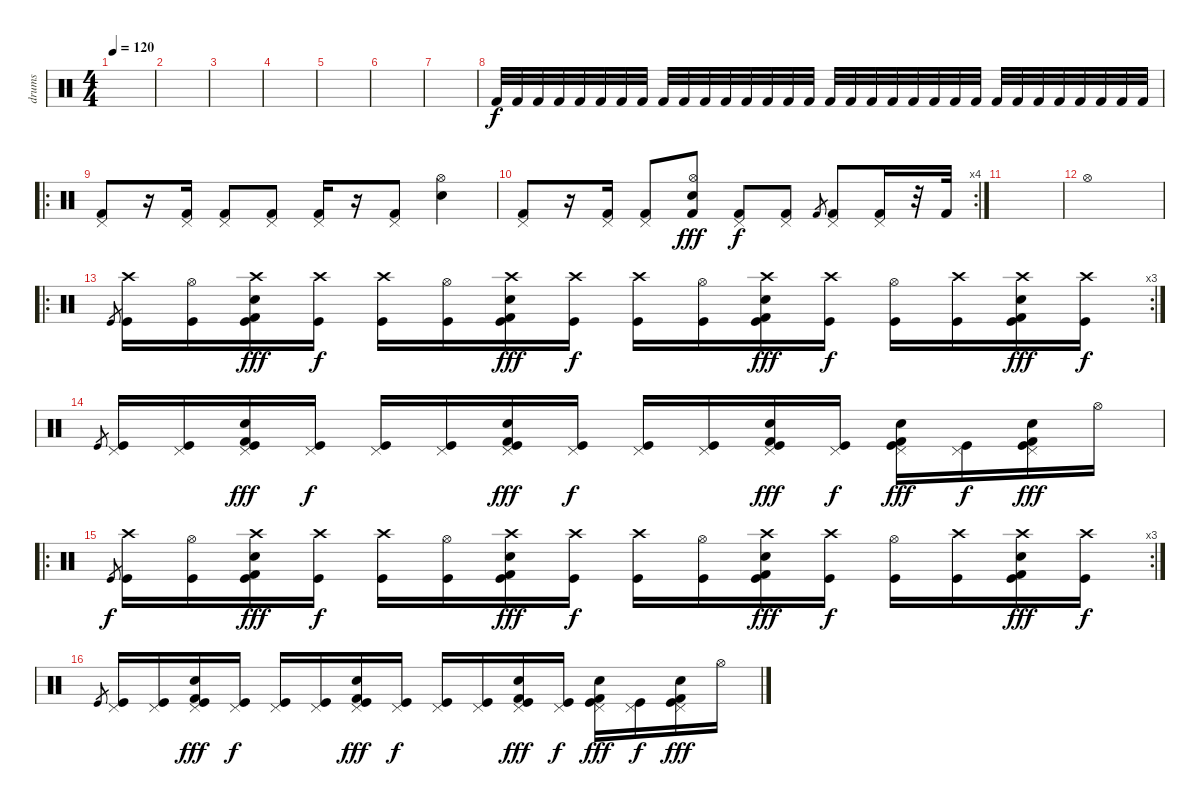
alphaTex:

\track ("drums" "drums") {instrument percussion}
\staff {score}
\articulation defaults
\ts (4 4)
\tempo 120
\clef neutral
\ks c
|
|
|
|
|
|
|
"Kick (hit) 2".32 "Kick (hit) 2".32 "Kick (hit) 2".32 "Kick (hit) 2".32 "Kick (hit) 2".32 "Kick (hit) 2".32 "Kick (hit) 2".32 "Kick (hit) 2".32 "Kick (hit) 2".32 "Kick (hit) 2".32 "Kick (hit) 2".32 "Kick (hit) 2".32 "Kick (hit) 2".32 "Kick (hit) 2".32 "Kick (hit) 2".32 "Kick (hit) 2".32 "Kick (hit) 2".32 "Kick (hit) 2".32 "Kick (hit) 2".32 "Kick (hit) 2".32 "Kick (hit) 2".32 "Kick (hit) 2".32 "Kick (hit) 2".32 "Kick (hit) 2".32 "Kick (hit) 2".32 "Kick (hit) 2".32 "Kick (hit) 2".32 "Kick (hit) 2".32 "Kick (hit) 2".32 "Kick (hit) 2".32 "Kick (hit) 2".32 "Kick (hit) 2".32 |
\ro
("Pedal Hi-Hat (hit)" "Kick (hit) 2").8 r.16 ("Pedal Hi-Hat (hit)" "Kick (hit) 2").16 ("Pedal Hi-Hat (hit)" "Kick (hit) 2").8 ("Pedal Hi-Hat (hit)" "Kick (hit) 2").8 ("Pedal Hi-Hat (hit)" "Kick (hit) 2").16 r.16 ("Pedal Hi-Hat (hit)" "Kick (hit) 2").8 ("Hi-Hat (open)" "Electric Snare (hit)").4 |
\rc 4
("Pedal Hi-Hat (hit)" "Kick (hit) 2").8 r.16 ("Pedal Hi-Hat (hit)" "Kick (hit) 2").16 ("Pedal Hi-Hat (hit)" "Kick (hit) 2").8 ("Hi-Hat (open)" "Kick (hit) 2" "Electric Snare (hit)").8{dy fff} ("Pedal Hi-Hat (hit)" "Kick (hit) 2").8{dy f} ("Pedal Hi-Hat (hit)" "Kick (hit) 2").8 "Kick (hit) 2".8{gr} ("Pedal Hi-Hat (hit)" "Kick (hit) 2").8 ("Pedal Hi-Hat (hit)" "Kick (hit) 2").16 r.32 "Kick (hit) 2".32 |
|
"Hi-Hat (open)".1 |
\ro
\rc 3 "Kick (hit)".8{gr}
("Crash high (hit)" "Kick (hit)").16 ("Hi-Hat (open)" "Kick (hit)").16 ("Crash high (hit)" "Kick (hit) 2" "Electric Snare (hit)" "Kick (hit)").16{dy fff} ("Crash high (hit)" "Kick (hit)").16{dy f} ("Crash high (hit)" "Kick (hit)").16 ("Hi-Hat (open)" "Kick (hit)").16 ("Crash high (hit)" "Kick (hit) 2" "Electric Snare (hit)" "Kick (hit)").16{dy fff} ("Crash high (hit)" "Kick (hit)").16{dy f} ("Crash high (hit)" "Kick (hit)").16 ("Hi-Hat (open)" "Kick (hit)").16 ("Crash high (hit)" "Kick (hit) 2" "Electric Snare (hit)" "Kick (hit)").16{dy fff} ("Crash high (hit)" "Kick (hit)").16{dy f} ("Hi-Hat (open)" "Kick (hit)").16 ("Crash high (hit)" "Kick (hit)").16 ("Crash high (hit)" "Kick (hit) 2" "Electric Snare (hit)" "Kick (hit)").16{dy fff} ("Crash high (hit)" "Kick (hit)").16{dy f} |
"Kick (hit)".8{gr} ("Pedal Hi-Hat (hit)" "Kick (hit)").16 ("Pedal Hi-Hat (hit)" "Kick (hit)").16 ("Pedal Hi-Hat (hit)" "Kick (hit) 2" "Electric Snare (hit)" "Kick (hit)").16{dy fff} ("Pedal Hi-Hat (hit)" "Kick (hit)").16{dy f} ("Pedal Hi-Hat (hit)" "Kick (hit)").16 ("Pedal Hi-Hat (hit)" "Kick (hit)").16 ("Pedal Hi-Hat (hit)" "Kick (hit) 2" "Electric Snare (hit)" "Kick (hit)").16{dy fff} ("Pedal Hi-Hat (hit)" "Kick (hit)").16{dy f} ("Pedal Hi-Hat (hit)" "Kick (hit)").16 ("Pedal Hi-Hat (hit)" "Kick (hit)").16 ("Pedal Hi-Hat (hit)" "Kick (hit) 2" "Electric Snare (hit)" "Kick (hit)").16{dy fff} ("Pedal Hi-Hat (hit)" "Kick (hit)").16{dy f} ("Pedal Hi-Hat (hit)" "Kick (hit) 2" "Electric Snare (hit)" "Kick (hit)").16{dy fff} ("Pedal Hi-Hat (hit)" "Kick (hit)").16{dy f} ("Pedal Hi-Hat (hit)" "Kick (hit) 2" "Electric Snare (hit)" "Kick (hit)").16{dy fff} "Hi-Hat (open)".16 |
\ro
\rc 3 "Kick (hit)".8{gr dy f}
("Crash high (hit)" "Kick (hit)").16 ("Hi-Hat (open)" "Kick (hit)").16 ("Crash high (hit)" "Kick (hit) 2" "Electric Snare (hit)" "Kick (hit)").16{dy fff} ("Crash high (hit)" "Kick (hit)").16{dy f} ("Crash high (hit)" "Kick (hit)").16 ("Hi-Hat (open)" "Kick (hit)").16 ("Crash high (hit)" "Kick (hit) 2" "Electric Snare (hit)" "Kick (hit)").16{dy fff} ("Crash high (hit)" "Kick (hit)").16{dy f} ("Crash high (hit)" "Kick (hit)").16 ("Hi-Hat (open)" "Kick (hit)").16 ("Crash high (hit)" "Kick (hit) 2" "Electric Snare (hit)" "Kick (hit)").16{dy fff} ("Crash high (hit)" "Kick (hit)").16{dy f} ("Hi-Hat (open)" "Kick (hit)").16 ("Crash high (hit)" "Kick (hit)").16 ("Crash high (hit)" "Kick (hit) 2" "Electric Snare (hit)" "Kick (hit)").16{dy fff} ("Crash high (hit)" "Kick (hit)").16{dy f} |
"Kick (hit)".8{gr} ("Pedal Hi-Hat (hit)" "Kick (hit)").16 ("Pedal Hi-Hat (hit)" "Kick (hit)").16 ("Pedal Hi-Hat (hit)" "Kick (hit) 2" "Electric Snare (hit)" "Kick (hit)").16{dy fff} ("Pedal Hi-Hat (hit)" "Kick (hit)").16{dy f} ("Pedal Hi-Hat (hit)" "Kick (hit)").16 ("Pedal Hi-Hat (hit)" "Kick (hit)").16 ("Pedal Hi-Hat (hit)" "Kick (hit) 2" "Electric Snare (hit)" "Kick (hit)").16{dy fff} ("Pedal Hi-Hat (hit)" "Kick (hit)").16{dy f} ("Pedal Hi-Hat (hit)" "Kick (hit)").16 ("Pedal Hi-Hat (hit)" "Kick (hit)").16 ("Pedal Hi-Hat (hit)" "Kick (hit) 2" "Electric Snare (hit)" "Kick (hit)").16{dy fff} ("Pedal Hi-Hat (hit)" "Kick (hit)").16{dy f} ("Pedal Hi-Hat (hit)" "Kick (hit) 2" "Electric Snare (hit)" "Kick (hit)").16{dy fff} ("Pedal Hi-Hat (hit)" "Kick (hit)").16{dy f} ("Pedal Hi-Hat (hit)" "Kick (hit) 2" "Electric Snare (hit)" "Kick (hit)").16{dy fff} "Hi-Hat (open)".16
